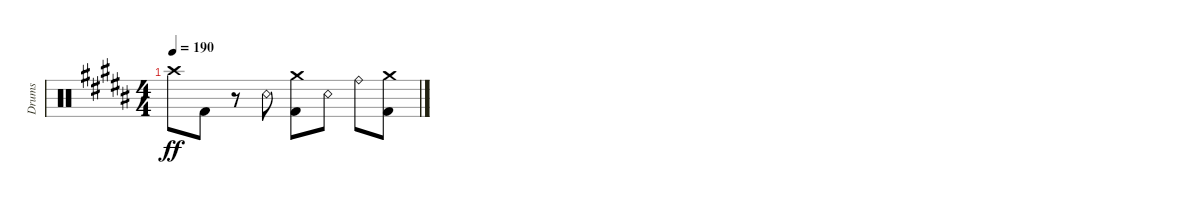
\bracketExtendMode groupsimilarinstruments
\otherSystemsTrackNameOrientation horizontal
\track ("Drumkit" "Drums") {instrument percussion}
\staff {score}
\articulation defaults
\ts (4 4)
\tempo 190
\clef neutral
\ks b "Crash high (hit)"{acc forcenatural}.8{dy ff} "Kick (hit) 2"{acc forcenatural}.8
r.8 "Snare (rim shot)"{acc forcenatural}.8 ("Crash medium (hit)"{acc forcenatural} "Kick (hit) 2"{acc forcenatural}).8 "Snare (rim shot)"{acc forcenatural}.8 "Ride (bell)"{acc forcenatural}.8 ("Kick (hit) 2"{acc forcenatural} "Crash medium (hit)"{acc forcenatural}).8
